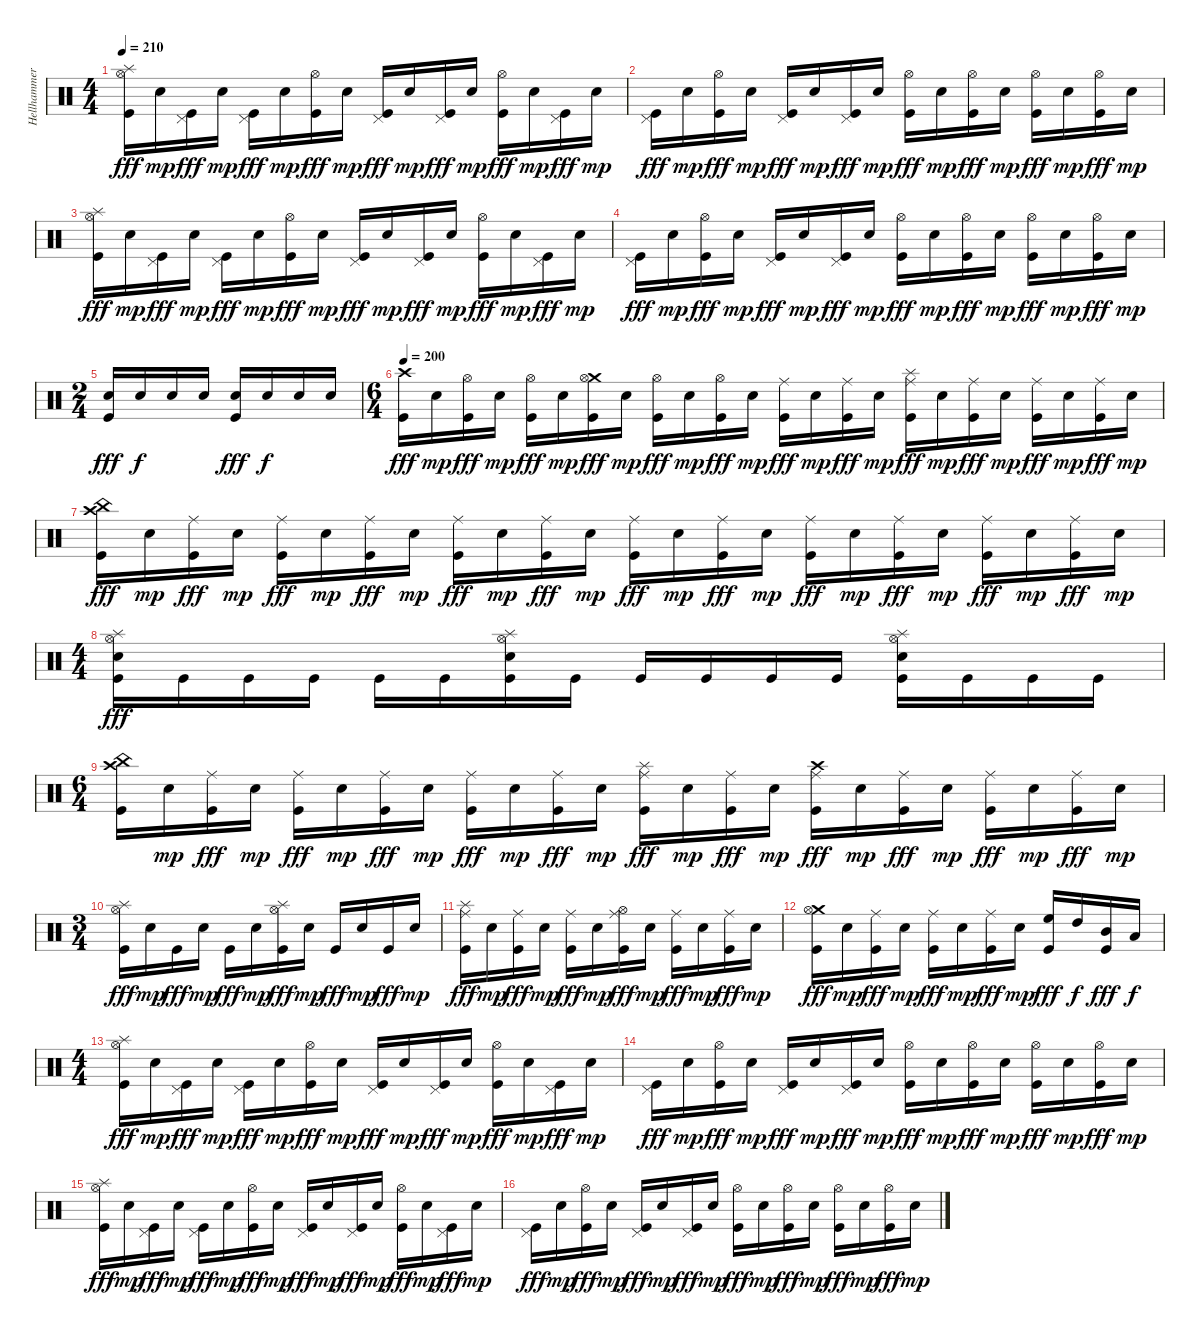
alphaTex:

\track ("Hellhammer" "Hellhammer") {instrument percussion}
\staff {score}
\articulation defaults
\ts (4 4)
\tempo 210
\clef neutral
\ks c
("Splash (hit)" "Hi-Hat (open)" "Kick (hit)").16{dy fff} "Electric Snare (hit)".16{dy mp} ("Pedal Hi-Hat (hit)" "Kick (hit)").16{dy fff} "Electric Snare (hit)".16{dy mp} ("Pedal Hi-Hat (hit)" "Kick (hit)").16{dy fff} "Electric Snare (hit)".16{dy mp} ("Hi-Hat (open)" "Kick (hit)").16{dy fff} "Electric Snare (hit)".16{dy mp} ("Pedal Hi-Hat (hit)" "Kick (hit)").16{dy fff} "Electric Snare (hit)".16{dy mp} ("Pedal Hi-Hat (hit)" "Kick (hit)").16{dy fff} "Electric Snare (hit)".16{dy mp} ("Hi-Hat (open)" "Kick (hit)").16{dy fff} "Electric Snare (hit)".16{dy mp} ("Pedal Hi-Hat (hit)" "Kick (hit)").16{dy fff} "Electric Snare (hit)".16{dy mp} |
("Pedal Hi-Hat (hit)" "Kick (hit)").16{dy fff} "Electric Snare (hit)".16{dy mp} ("Hi-Hat (open)" "Kick (hit)").16{dy fff} "Electric Snare (hit)".16{dy mp} ("Pedal Hi-Hat (hit)" "Kick (hit)").16{dy fff} "Electric Snare (hit)".16{dy mp} ("Pedal Hi-Hat (hit)" "Kick (hit)").16{dy fff} "Electric Snare (hit)".16{dy mp} ("Hi-Hat (open)" "Kick (hit)").16{dy fff} "Electric Snare (hit)".16{dy mp} ("Hi-Hat (open)" "Kick (hit)").16{dy fff} "Electric Snare (hit)".16{dy mp} ("Hi-Hat (open)" "Kick (hit)").16{dy fff} "Electric Snare (hit)".16{dy mp} ("Hi-Hat (open)" "Kick (hit)").16{dy fff} "Electric Snare (hit)".16{dy mp} |
("Splash (hit)" "Hi-Hat (open)" "Kick (hit)").16{dy fff} "Electric Snare (hit)".16{dy mp} ("Pedal Hi-Hat (hit)" "Kick (hit)").16{dy fff} "Electric Snare (hit)".16{dy mp} ("Pedal Hi-Hat (hit)" "Kick (hit)").16{dy fff} "Electric Snare (hit)".16{dy mp} ("Hi-Hat (open)" "Kick (hit)").16{dy fff} "Electric Snare (hit)".16{dy mp} ("Pedal Hi-Hat (hit)" "Kick (hit)").16{dy fff} "Electric Snare (hit)".16{dy mp} ("Pedal Hi-Hat (hit)" "Kick (hit)").16{dy fff} "Electric Snare (hit)".16{dy mp} ("Hi-Hat (open)" "Kick (hit)").16{dy fff} "Electric Snare (hit)".16{dy mp} ("Pedal Hi-Hat (hit)" "Kick (hit)").16{dy fff} "Electric Snare (hit)".16{dy mp} |
("Pedal Hi-Hat (hit)" "Kick (hit)").16{dy fff} "Electric Snare (hit)".16{dy mp} ("Hi-Hat (open)" "Kick (hit)").16{dy fff} "Electric Snare (hit)".16{dy mp} ("Pedal Hi-Hat (hit)" "Kick (hit)").16{dy fff} "Electric Snare (hit)".16{dy mp} ("Pedal Hi-Hat (hit)" "Kick (hit)").16{dy fff} "Electric Snare (hit)".16{dy mp} ("Hi-Hat (open)" "Kick (hit)").16{dy fff} "Electric Snare (hit)".16{dy mp} ("Hi-Hat (open)" "Kick (hit)").16{dy fff} "Electric Snare (hit)".16{dy mp} ("Hi-Hat (open)" "Kick (hit)").16{dy fff} "Electric Snare (hit)".16{dy mp} ("Hi-Hat (open)" "Kick (hit)").16{dy fff} "Electric Snare (hit)".16{dy mp} |
\ts (2 4)
("Electric Snare (hit)" "Kick (hit)").16{dy fff} "Electric Snare (hit)".16{dy f} "Electric Snare (hit)".16 "Electric Snare (hit)".16 ("Electric Snare (hit)" "Kick (hit)").16{dy fff} "Electric Snare (hit)".16{dy f} "Electric Snare (hit)".16 "Electric Snare (hit)".16 |
\ts (6 4)
\tempo 200
("Crash high (hit)" "Kick (hit)").16{dy fff} "Electric Snare (hit)".16{dy mp} ("Hi-Hat (open)" "Kick (hit)").16{dy fff} "Electric Snare (hit)".16{dy mp} ("Hi-Hat (open)" "Kick (hit)").16{dy fff} "Electric Snare (hit)".16{dy mp} ("Crash medium (hit)" "Hi-Hat (open)" "Kick (hit)").16{dy fff} "Electric Snare (hit)".16{dy mp} ("Hi-Hat (open)" "Kick (hit)").16{dy fff} "Electric Snare (hit)".16{dy mp} ("Hi-Hat (open)" "Kick (hit)").16{dy fff} "Electric Snare (hit)".16{dy mp} ("Ride (middle)" "Kick (hit)").16{dy fff} "Electric Snare (hit)".16{dy mp} ("Ride (middle)" "Kick (hit)").16{dy fff} "Electric Snare (hit)".16{dy mp} ("Splash (hit)" "Ride (middle)" "Kick (hit)").16{dy fff} "Electric Snare (hit)".16{dy mp} ("Ride (middle)" "Kick (hit)").16{dy fff} "Electric Snare (hit)".16{dy mp} ("Ride (middle)" "Kick (hit)").16{dy fff} "Electric Snare (hit)".16{dy mp} ("Ride (middle)" "Kick (hit)").16{dy fff} "Electric Snare (hit)".16{dy mp} |
("China (hit)" "Crash high (hit)" "Kick (hit)").16{dy fff} "Electric Snare (hit)".16{dy mp} ("Ride (middle)" "Kick (hit)").16{dy fff} "Electric Snare (hit)".16{dy mp} ("Ride (middle)" "Kick (hit)").16{dy fff} "Electric Snare (hit)".16{dy mp} ("Ride (middle)" "Kick (hit)").16{dy fff} "Electric Snare (hit)".16{dy mp} ("Ride (middle)" "Kick (hit)").16{dy fff} "Electric Snare (hit)".16{dy mp} ("Ride (middle)" "Kick (hit)").16{dy fff} "Electric Snare (hit)".16{dy mp} ("Ride (middle)" "Kick (hit)").16{dy fff} "Electric Snare (hit)".16{dy mp} ("Ride (middle)" "Kick (hit)").16{dy fff} "Electric Snare (hit)".16{dy mp} ("Ride (middle)" "Kick (hit)").16{dy fff} "Electric Snare (hit)".16{dy mp} ("Ride (middle)" "Kick (hit)").16{dy fff} "Electric Snare (hit)".16{dy mp} ("Ride (middle)" "Kick (hit)").16{dy fff} "Electric Snare (hit)".16{dy mp} ("Ride (middle)" "Kick (hit)").16{dy fff} "Electric Snare (hit)".16{dy mp} |
\ts (4 4)
("Splash (hit)" "Hi-Hat (open)" "Electric Snare (hit)" "Kick (hit)").16{dy fff} "Kick (hit)".16 "Kick (hit)".16 "Kick (hit)".16 "Kick (hit)".16 "Kick (hit)".16 ("Splash (hit)" "Hi-Hat (open)" "Electric Snare (hit)" "Kick (hit)").16 "Kick (hit)".16 "Kick (hit)".16 "Kick (hit)".16 "Kick (hit)".16 "Kick (hit)".16 ("Splash (hit)" "Hi-Hat (open)" "Electric Snare (hit)" "Kick (hit)").16 "Kick (hit)".16 "Kick (hit)".16 "Kick (hit)".16 |
\ts (6 4)
("China (hit)" "Crash high (hit)" "Kick (hit)").16 "Electric Snare (hit)".16{dy mp} ("Ride (middle)" "Kick (hit)").16{dy fff} "Electric Snare (hit)".16{dy mp} ("Ride (middle)" "Kick (hit)").16{dy fff} "Electric Snare (hit)".16{dy mp} ("Ride (middle)" "Kick (hit)").16{dy fff} "Electric Snare (hit)".16{dy mp} ("Ride (middle)" "Kick (hit)").16{dy fff} "Electric Snare (hit)".16{dy mp} ("Ride (middle)" "Kick (hit)").16{dy fff} "Electric Snare (hit)".16{dy mp} ("Splash (hit)" "Ride (middle)" "Kick (hit)").16{dy fff} "Electric Snare (hit)".16{dy mp} ("Ride (middle)" "Kick (hit)").16{dy fff} "Electric Snare (hit)".16{dy mp} ("Crash high (hit)" "Ride (middle)" "Kick (hit)").16{dy fff} "Electric Snare (hit)".16{dy mp} ("Ride (middle)" "Kick (hit)").16{dy fff} "Electric Snare (hit)".16{dy mp} ("Ride (middle)" "Kick (hit)").16{dy fff} "Electric Snare (hit)".16{dy mp} ("Ride (middle)" "Kick (hit)").16{dy fff} "Electric Snare (hit)".16{dy mp} |
\ts (3 4)
("Splash (hit)" "Hi-Hat (open)" "Kick (hit)").16{dy fff} "Electric Snare (hit)".16{dy mp} "Kick (hit)".16{dy fff} "Electric Snare (hit)".16{dy mp} "Kick (hit)".16{dy fff} "Electric Snare (hit)".16{dy mp} ("Splash (hit)" "Hi-Hat (open)" "Kick (hit)").16{dy fff} "Electric Snare (hit)".16{dy mp} "Kick (hit)".16{dy fff} "Electric Snare (hit)".16{dy mp} "Kick (hit)".16{dy fff} "Electric Snare (hit)".16{dy mp} |
("Splash (hit)" "Ride (middle)" "Kick (hit)").16{dy fff} "Electric Snare (hit)".16{dy mp} ("Ride (middle)" "Kick (hit)").16{dy fff} "Electric Snare (hit)".16{dy mp} ("Ride (middle)" "Kick (hit)").16{dy fff} "Electric Snare (hit)".16{dy mp} ("Hi-Hat (open)" "Ride (middle)" "Kick (hit)").16{dy fff} "Electric Snare (hit)".16{dy mp} ("Ride (middle)" "Kick (hit)").16{dy fff} "Electric Snare (hit)".16{dy mp} ("Ride (middle)" "Kick (hit)").16{dy fff} "Electric Snare (hit)".16{dy mp} |
("Crash medium (hit)" "Hi-Hat (open)" "Kick (hit)").16{dy fff} "Electric Snare (hit)".16{dy mp} ("Ride (middle)" "Kick (hit)").16{dy fff} "Electric Snare (hit)".16{dy mp} ("Ride (middle)" "Kick (hit)").16{dy fff} "Electric Snare (hit)".16{dy mp} ("Ride (middle)" "Kick (hit)").16{dy fff} "Electric Snare (hit)".16{dy mp} ("High Floor Tom (hit)" "Kick (hit)").16{dy fff} "High Tom (hit)".16{dy f} ("Mid Tom (hit)" "Kick (hit)").16{dy fff} "Low Tom (hit)".16{dy f} |
\ts (4 4)
("Splash (hit)" "Hi-Hat (open)" "Kick (hit)").16{dy fff} "Electric Snare (hit)".16{dy mp} ("Pedal Hi-Hat (hit)" "Kick (hit)").16{dy fff} "Electric Snare (hit)".16{dy mp} ("Pedal Hi-Hat (hit)" "Kick (hit)").16{dy fff} "Electric Snare (hit)".16{dy mp} ("Hi-Hat (open)" "Kick (hit)").16{dy fff} "Electric Snare (hit)".16{dy mp} ("Pedal Hi-Hat (hit)" "Kick (hit)").16{dy fff} "Electric Snare (hit)".16{dy mp} ("Pedal Hi-Hat (hit)" "Kick (hit)").16{dy fff} "Electric Snare (hit)".16{dy mp} ("Hi-Hat (open)" "Kick (hit)").16{dy fff} "Electric Snare (hit)".16{dy mp} ("Pedal Hi-Hat (hit)" "Kick (hit)").16{dy fff} "Electric Snare (hit)".16{dy mp} |
("Pedal Hi-Hat (hit)" "Kick (hit)").16{dy fff} "Electric Snare (hit)".16{dy mp} ("Hi-Hat (open)" "Kick (hit)").16{dy fff} "Electric Snare (hit)".16{dy mp} ("Pedal Hi-Hat (hit)" "Kick (hit)").16{dy fff} "Electric Snare (hit)".16{dy mp} ("Pedal Hi-Hat (hit)" "Kick (hit)").16{dy fff} "Electric Snare (hit)".16{dy mp} ("Hi-Hat (open)" "Kick (hit)").16{dy fff} "Electric Snare (hit)".16{dy mp} ("Hi-Hat (open)" "Kick (hit)").16{dy fff} "Electric Snare (hit)".16{dy mp} ("Hi-Hat (open)" "Kick (hit)").16{dy fff} "Electric Snare (hit)".16{dy mp} ("Hi-Hat (open)" "Kick (hit)").16{dy fff} "Electric Snare (hit)".16{dy mp} |
("Splash (hit)" "Hi-Hat (open)" "Kick (hit)").16{dy fff} "Electric Snare (hit)".16{dy mp} ("Pedal Hi-Hat (hit)" "Kick (hit)").16{dy fff} "Electric Snare (hit)".16{dy mp} ("Pedal Hi-Hat (hit)" "Kick (hit)").16{dy fff} "Electric Snare (hit)".16{dy mp} ("Hi-Hat (open)" "Kick (hit)").16{dy fff} "Electric Snare (hit)".16{dy mp} ("Pedal Hi-Hat (hit)" "Kick (hit)").16{dy fff} "Electric Snare (hit)".16{dy mp} ("Pedal Hi-Hat (hit)" "Kick (hit)").16{dy fff} "Electric Snare (hit)".16{dy mp} ("Hi-Hat (open)" "Kick (hit)").16{dy fff} "Electric Snare (hit)".16{dy mp} ("Pedal Hi-Hat (hit)" "Kick (hit)").16{dy fff} "Electric Snare (hit)".16{dy mp} |
("Pedal Hi-Hat (hit)" "Kick (hit)").16{dy fff} "Electric Snare (hit)".16{dy mp} ("Hi-Hat (open)" "Kick (hit)").16{dy fff} "Electric Snare (hit)".16{dy mp} ("Pedal Hi-Hat (hit)" "Kick (hit)").16{dy fff} "Electric Snare (hit)".16{dy mp} ("Pedal Hi-Hat (hit)" "Kick (hit)").16{dy fff} "Electric Snare (hit)".16{dy mp} ("Hi-Hat (open)" "Kick (hit)").16{dy fff} "Electric Snare (hit)".16{dy mp} ("Hi-Hat (open)" "Kick (hit)").16{dy fff} "Electric Snare (hit)".16{dy mp} ("Hi-Hat (open)" "Kick (hit)").16{dy fff} "Electric Snare (hit)".16{dy mp} ("Hi-Hat (open)" "Kick (hit)").16{dy fff} "Electric Snare (hit)".16{dy mp}
